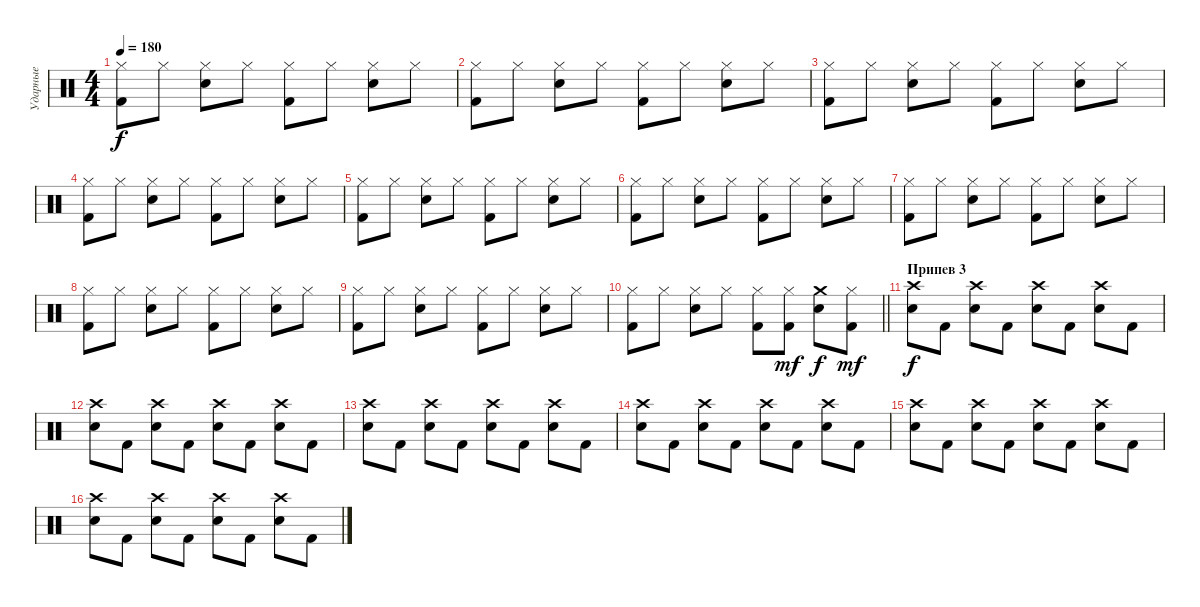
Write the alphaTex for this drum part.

\track ("Ударные" "Ударные") {instrument percussion}
\staff {score}
\articulation defaults
\ts (4 4)
\tempo 180
\clef neutral
\ks c
("Hi-Hat (closed)" "Kick (hit) 2").8{dy f} "Hi-Hat (closed)".8 ("Hi-Hat (closed)" "Snare (hit) 2").8 "Hi-Hat (closed)".8 ("Hi-Hat (closed)" "Kick (hit) 2").8 "Hi-Hat (closed)".8 ("Hi-Hat (closed)" "Snare (hit) 2").8 "Hi-Hat (closed)".8 |
("Hi-Hat (closed)" "Kick (hit) 2").8 "Hi-Hat (closed)".8 ("Hi-Hat (closed)" "Snare (hit) 2").8 "Hi-Hat (closed)".8 ("Hi-Hat (closed)" "Kick (hit) 2").8 "Hi-Hat (closed)".8 ("Hi-Hat (closed)" "Snare (hit) 2").8 "Hi-Hat (closed)".8 |
("Hi-Hat (closed)" "Kick (hit) 2").8 "Hi-Hat (closed)".8 ("Hi-Hat (closed)" "Snare (hit) 2").8 "Hi-Hat (closed)".8 ("Hi-Hat (closed)" "Kick (hit) 2").8 "Hi-Hat (closed)".8 ("Hi-Hat (closed)" "Snare (hit) 2").8 "Hi-Hat (closed)".8 |
("Hi-Hat (closed)" "Kick (hit) 2").8 "Hi-Hat (closed)".8 ("Hi-Hat (closed)" "Snare (hit) 2").8 "Hi-Hat (closed)".8 ("Hi-Hat (closed)" "Kick (hit) 2").8 "Hi-Hat (closed)".8 ("Hi-Hat (closed)" "Snare (hit) 2").8 "Hi-Hat (closed)".8 |
("Hi-Hat (closed)" "Kick (hit) 2").8 "Hi-Hat (closed)".8 ("Hi-Hat (closed)" "Snare (hit) 2").8 "Hi-Hat (closed)".8 ("Hi-Hat (closed)" "Kick (hit) 2").8 "Hi-Hat (closed)".8 ("Hi-Hat (closed)" "Snare (hit) 2").8 "Hi-Hat (closed)".8 |
("Hi-Hat (closed)" "Kick (hit) 2").8 "Hi-Hat (closed)".8 ("Hi-Hat (closed)" "Snare (hit) 2").8 "Hi-Hat (closed)".8 ("Hi-Hat (closed)" "Kick (hit) 2").8 "Hi-Hat (closed)".8 ("Hi-Hat (closed)" "Snare (hit) 2").8 "Hi-Hat (closed)".8 |
("Hi-Hat (closed)" "Kick (hit) 2").8 "Hi-Hat (closed)".8 ("Hi-Hat (closed)" "Snare (hit) 2").8 "Hi-Hat (closed)".8 ("Hi-Hat (closed)" "Kick (hit) 2").8 "Hi-Hat (closed)".8 ("Hi-Hat (closed)" "Snare (hit) 2").8 "Hi-Hat (closed)".8 |
("Hi-Hat (closed)" "Kick (hit) 2").8 "Hi-Hat (closed)".8 ("Hi-Hat (closed)" "Snare (hit) 2").8 "Hi-Hat (closed)".8 ("Hi-Hat (closed)" "Kick (hit) 2").8 "Hi-Hat (closed)".8 ("Hi-Hat (closed)" "Snare (hit) 2").8 "Hi-Hat (closed)".8 |
("Hi-Hat (closed)" "Kick (hit) 2").8 "Hi-Hat (closed)".8 ("Hi-Hat (closed)" "Snare (hit) 2").8 "Hi-Hat (closed)".8 ("Hi-Hat (closed)" "Kick (hit) 2").8 "Hi-Hat (closed)".8 ("Hi-Hat (closed)" "Snare (hit) 2").8 "Hi-Hat (closed)".8 |
\barLineRight lightlight
("Hi-Hat (closed)" "Kick (hit) 2").8 "Hi-Hat (closed)".8 ("Hi-Hat (closed)" "Snare (hit) 2").8 "Hi-Hat (closed)".8 ("Hi-Hat (closed)" "Kick (hit) 2").8 ("Hi-Hat (closed)" "Kick (hit) 2").8{dy mf} ("Crash medium (hit)" "Snare (hit) 2").8{dy f} ("Hi-Hat (closed)" "Kick (hit) 2").8{dy mf} |
\section ("" "Припев 3")
("Crash high (hit)" "Snare (hit) 2").8{dy f} "Kick (hit) 2".8 ("Crash high (hit)" "Snare (hit) 2").8 "Kick (hit) 2".8 ("Crash high (hit)" "Snare (hit) 2").8 "Kick (hit) 2".8 ("Crash high (hit)" "Snare (hit) 2").8 "Kick (hit) 2".8 |
("Crash high (hit)" "Snare (hit) 2").8 "Kick (hit) 2".8 ("Crash high (hit)" "Snare (hit) 2").8 "Kick (hit) 2".8 ("Crash high (hit)" "Snare (hit) 2").8 "Kick (hit) 2".8 ("Crash high (hit)" "Snare (hit) 2").8 "Kick (hit) 2".8 |
("Crash high (hit)" "Snare (hit) 2").8 "Kick (hit) 2".8 ("Crash high (hit)" "Snare (hit) 2").8 "Kick (hit) 2".8 ("Crash high (hit)" "Snare (hit) 2").8 "Kick (hit) 2".8 ("Crash high (hit)" "Snare (hit) 2").8 "Kick (hit) 2".8 |
("Crash high (hit)" "Snare (hit) 2").8 "Kick (hit) 2".8 ("Crash high (hit)" "Snare (hit) 2").8 "Kick (hit) 2".8 ("Crash high (hit)" "Snare (hit) 2").8 "Kick (hit) 2".8 ("Crash high (hit)" "Snare (hit) 2").8 "Kick (hit) 2".8 |
("Crash high (hit)" "Snare (hit) 2").8 "Kick (hit) 2".8 ("Crash high (hit)" "Snare (hit) 2").8 "Kick (hit) 2".8 ("Crash high (hit)" "Snare (hit) 2").8 "Kick (hit) 2".8 ("Crash high (hit)" "Snare (hit) 2").8 "Kick (hit) 2".8 |
("Crash high (hit)" "Snare (hit) 2").8 "Kick (hit) 2".8 ("Crash high (hit)" "Snare (hit) 2").8 "Kick (hit) 2".8 ("Crash high (hit)" "Snare (hit) 2").8 "Kick (hit) 2".8 ("Crash high (hit)" "Snare (hit) 2").8 "Kick (hit) 2".8
